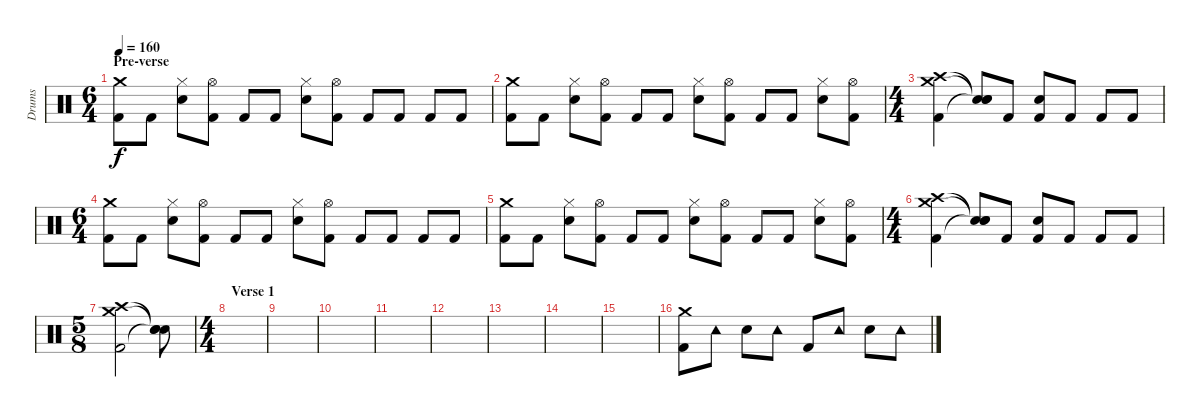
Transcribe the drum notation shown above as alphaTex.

\track ("Drums" "Drums") {instrument percussion}
\staff {score}
\articulation defaults
\ts (6 4)
\section ("" "Pre-verse")
\tempo 160
\clef neutral
\ks c
("Crash medium (hit)" "Kick (hit) 2").8{dy f} "Kick (hit) 2".8 ("Hi-Hat (closed)" "Snare (hit) 2").8 ("Hi-Hat (open)" "Kick (hit) 2").8 "Kick (hit) 2".8 "Kick (hit) 2".8 ("Hi-Hat (closed)" "Snare (hit) 2").8 ("Hi-Hat (open)" "Kick (hit) 2").8 "Kick (hit) 2".8 "Kick (hit) 2".8 "Kick (hit) 2".8 "Kick (hit) 2".8 |
("Crash medium (hit)" "Kick (hit) 2").8 "Kick (hit) 2".8 ("Hi-Hat (closed)" "Snare (hit) 2").8 ("Hi-Hat (open)" "Kick (hit) 2").8 "Kick (hit) 2".8 "Kick (hit) 2".8 ("Hi-Hat (closed)" "Snare (hit) 2").8 ("Hi-Hat (open)" "Kick (hit) 2").8 "Kick (hit) 2".8 "Kick (hit) 2".8 ("Hi-Hat (closed)" "Snare (hit) 2").8 ("Hi-Hat (open)" "Kick (hit) 2").8 |
\ts (4 4)
("Crash medium (hit)" "Crash high (hit)" "Kick (hit) 2").4 ("Snare (hit)"{t} "Snare (hit)"{t} "Snare (hit)"{t}).8 "Kick (hit) 2".8 ("Snare (hit) 2" "Kick (hit) 2").8 "Kick (hit) 2".8 "Kick (hit) 2".8 "Kick (hit) 2".8 |
\ts (6 4)
("Crash medium (hit)" "Kick (hit) 2").8 "Kick (hit) 2".8 ("Hi-Hat (closed)" "Snare (hit) 2").8 ("Hi-Hat (open)" "Kick (hit) 2").8 "Kick (hit) 2".8 "Kick (hit) 2".8 ("Hi-Hat (closed)" "Snare (hit) 2").8 ("Hi-Hat (open)" "Kick (hit) 2").8 "Kick (hit) 2".8 "Kick (hit) 2".8 "Kick (hit) 2".8 "Kick (hit) 2".8 |
("Crash medium (hit)" "Kick (hit) 2").8 "Kick (hit) 2".8 ("Hi-Hat (closed)" "Snare (hit) 2").8 ("Hi-Hat (open)" "Kick (hit) 2").8 "Kick (hit) 2".8 "Kick (hit) 2".8 ("Hi-Hat (closed)" "Snare (hit) 2").8 ("Hi-Hat (open)" "Kick (hit) 2").8 "Kick (hit) 2".8 "Kick (hit) 2".8 ("Hi-Hat (closed)" "Snare (hit) 2").8 ("Hi-Hat (open)" "Kick (hit) 2").8 |
\ts (4 4)
("Crash medium (hit)" "Crash high (hit)" "Kick (hit) 2").4 ("Snare (hit)"{t} "Snare (hit)"{t} "Snare (hit)"{t}).8 "Kick (hit) 2".8 ("Snare (hit) 2" "Kick (hit) 2").8 "Kick (hit) 2".8 "Kick (hit) 2".8 "Kick (hit) 2".8 |
\ts (5 8)
("Crash medium (hit)" "Crash high (hit)" "Kick (hit) 2").2 ("Snare (hit)"{t} "Snare (hit)"{t} "Snare (hit)"{t}).8 |
\ts (4 4)
\section ("" "Verse 1")
|
|
|
|
|
|
|
|
("Crash medium (hit)" "Kick (hit) 2").8 "Tambourine (hit)".8 "Snare (hit) 2".8 "Tambourine (hit)".8 "Kick (hit) 2".8 "Tambourine (hit)".8 "Snare (hit) 2".8 "Tambourine (hit)".8
